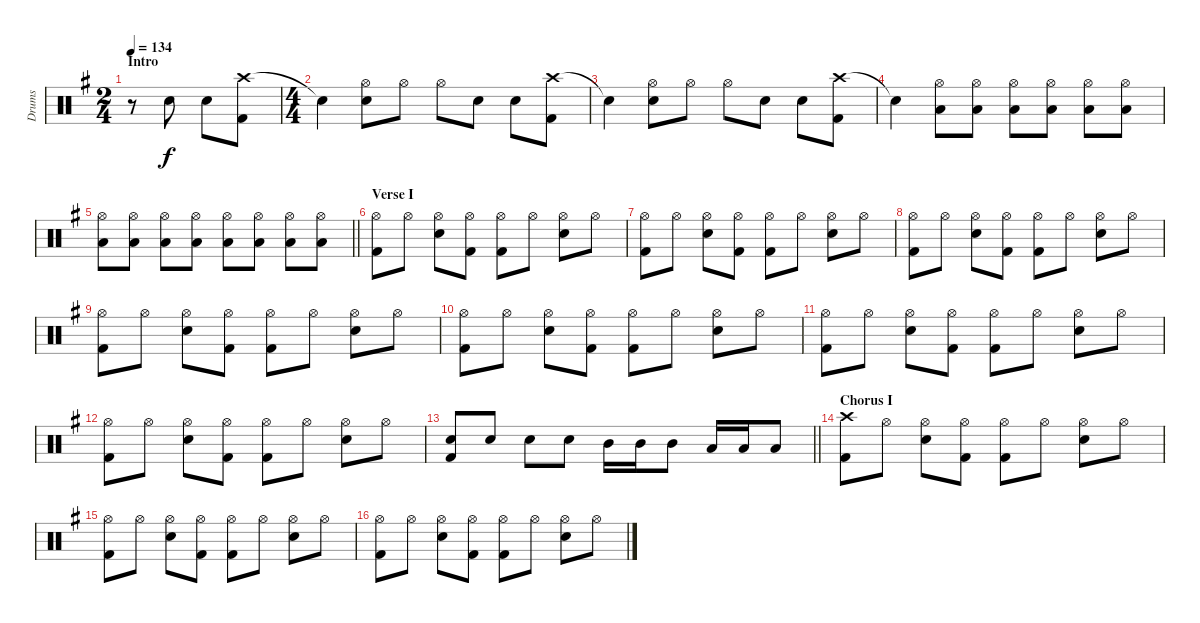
\track ("Drums" "Drums") {instrument percussion}
\staff {score}
\articulation defaults
\ts (2 4)
\section ("" "Intro")
\tempo 134
\clef neutral
\ks g
r.8{dy f} "Snare (hit) 2".8 "Snare (hit) 2".8 ("Crash high (hit)" "Kick (hit) 2").8 |
\ts (4 4)
"Snare (hit)"{t}.4 ("Hi-Hat (open)" "Snare (hit) 2").8 "Hi-Hat (open)".8 "Hi-Hat (open)".8 "Snare (hit) 2".8 "Snare (hit) 2".8 ("Crash high (hit)" "Kick (hit) 2").8 |
"Snare (hit)"{t}.4 ("Hi-Hat (open)" "Snare (hit) 2").8 "Hi-Hat (open)".8 "Hi-Hat (open)".8 "Snare (hit) 2".8 "Snare (hit) 2".8 ("Crash high (hit)" "Kick (hit) 2").8 |
"Snare (hit)"{t}.4 ("Hi-Hat (open)" "Low Floor Tom (hit)").8 ("Hi-Hat (open)" "Low Floor Tom (hit)").8 ("Hi-Hat (open)" "Low Floor Tom (hit)").8 ("Hi-Hat (open)" "Low Floor Tom (hit)").8 ("Hi-Hat (open)" "Low Floor Tom (hit)").8 ("Hi-Hat (open)" "Low Floor Tom (hit)").8 |
\barLineRight lightlight
("Hi-Hat (open)" "Low Floor Tom (hit)").8 ("Hi-Hat (open)" "Low Floor Tom (hit)").8 ("Hi-Hat (open)" "Low Floor Tom (hit)").8 ("Hi-Hat (open)" "Low Floor Tom (hit)").8 ("Hi-Hat (open)" "Low Floor Tom (hit)").8 ("Hi-Hat (open)" "Low Floor Tom (hit)").8 ("Hi-Hat (open)" "Low Floor Tom (hit)").8 ("Hi-Hat (open)" "Low Floor Tom (hit)").8 |
\section ("" "Verse I")
("Hi-Hat (open)" "Kick (hit) 2").8 "Hi-Hat (open)".8 ("Hi-Hat (open)" "Snare (hit) 2").8 ("Hi-Hat (open)" "Kick (hit) 2").8 ("Hi-Hat (open)" "Kick (hit) 2").8 "Hi-Hat (open)".8 ("Hi-Hat (open)" "Snare (hit) 2").8 "Hi-Hat (open)".8 |
("Hi-Hat (open)" "Kick (hit) 2").8 "Hi-Hat (open)".8 ("Hi-Hat (open)" "Snare (hit) 2").8 ("Hi-Hat (open)" "Kick (hit) 2").8 ("Hi-Hat (open)" "Kick (hit) 2").8 "Hi-Hat (open)".8 ("Hi-Hat (open)" "Snare (hit) 2").8 "Hi-Hat (open)".8 |
("Hi-Hat (open)" "Kick (hit) 2").8 "Hi-Hat (open)".8 ("Hi-Hat (open)" "Snare (hit) 2").8 ("Hi-Hat (open)" "Kick (hit) 2").8 ("Hi-Hat (open)" "Kick (hit) 2").8 "Hi-Hat (open)".8 ("Hi-Hat (open)" "Snare (hit) 2").8 "Hi-Hat (open)".8 |
("Hi-Hat (open)" "Kick (hit) 2").8 "Hi-Hat (open)".8 ("Hi-Hat (open)" "Snare (hit) 2").8 ("Hi-Hat (open)" "Kick (hit) 2").8 ("Hi-Hat (open)" "Kick (hit) 2").8 "Hi-Hat (open)".8 ("Hi-Hat (open)" "Snare (hit) 2").8 "Hi-Hat (open)".8 |
("Hi-Hat (open)" "Kick (hit) 2").8 "Hi-Hat (open)".8 ("Hi-Hat (open)" "Snare (hit) 2").8 ("Hi-Hat (open)" "Kick (hit) 2").8 ("Hi-Hat (open)" "Kick (hit) 2").8 "Hi-Hat (open)".8 ("Hi-Hat (open)" "Snare (hit) 2").8 "Hi-Hat (open)".8 |
("Hi-Hat (open)" "Kick (hit) 2").8 "Hi-Hat (open)".8 ("Hi-Hat (open)" "Snare (hit) 2").8 ("Hi-Hat (open)" "Kick (hit) 2").8 ("Hi-Hat (open)" "Kick (hit) 2").8 "Hi-Hat (open)".8 ("Hi-Hat (open)" "Snare (hit) 2").8 "Hi-Hat (open)".8 |
("Hi-Hat (open)" "Kick (hit) 2").8 "Hi-Hat (open)".8 ("Hi-Hat (open)" "Snare (hit) 2").8 ("Hi-Hat (open)" "Kick (hit) 2").8 ("Hi-Hat (open)" "Kick (hit) 2").8 "Hi-Hat (open)".8 ("Hi-Hat (open)" "Snare (hit) 2").8 "Hi-Hat (open)".8 |
\barLineRight lightlight
("Snare (hit) 2" "Kick (hit) 2").8 "Snare (hit) 2".8 "Snare (hit) 2".8 "Snare (hit) 2".8 "Mid Tom (hit)".16 "Mid Tom (hit)".16 "Mid Tom (hit)".8 "Low Tom (hit)".16 "Low Tom (hit)".16 "Low Tom (hit)".8 |
\section ("" "Chorus I")
("Crash high (hit)" "Kick (hit) 2").8 "Hi-Hat (open)".8 ("Hi-Hat (open)" "Snare (hit) 2").8 ("Hi-Hat (open)" "Kick (hit) 2").8 ("Hi-Hat (open)" "Kick (hit) 2").8 "Hi-Hat (open)".8 ("Hi-Hat (open)" "Snare (hit) 2").8 "Hi-Hat (open)".8 |
("Hi-Hat (open)" "Kick (hit) 2").8 "Hi-Hat (open)".8 ("Hi-Hat (open)" "Snare (hit) 2").8 ("Hi-Hat (open)" "Kick (hit) 2").8 ("Hi-Hat (open)" "Kick (hit) 2").8 "Hi-Hat (open)".8 ("Hi-Hat (open)" "Snare (hit) 2").8 "Hi-Hat (open)".8 |
("Hi-Hat (open)" "Kick (hit) 2").8 "Hi-Hat (open)".8 ("Hi-Hat (open)" "Snare (hit) 2").8 ("Hi-Hat (open)" "Kick (hit) 2").8 ("Hi-Hat (open)" "Kick (hit) 2").8 "Hi-Hat (open)".8 ("Hi-Hat (open)" "Snare (hit) 2").8 "Hi-Hat (open)".8
